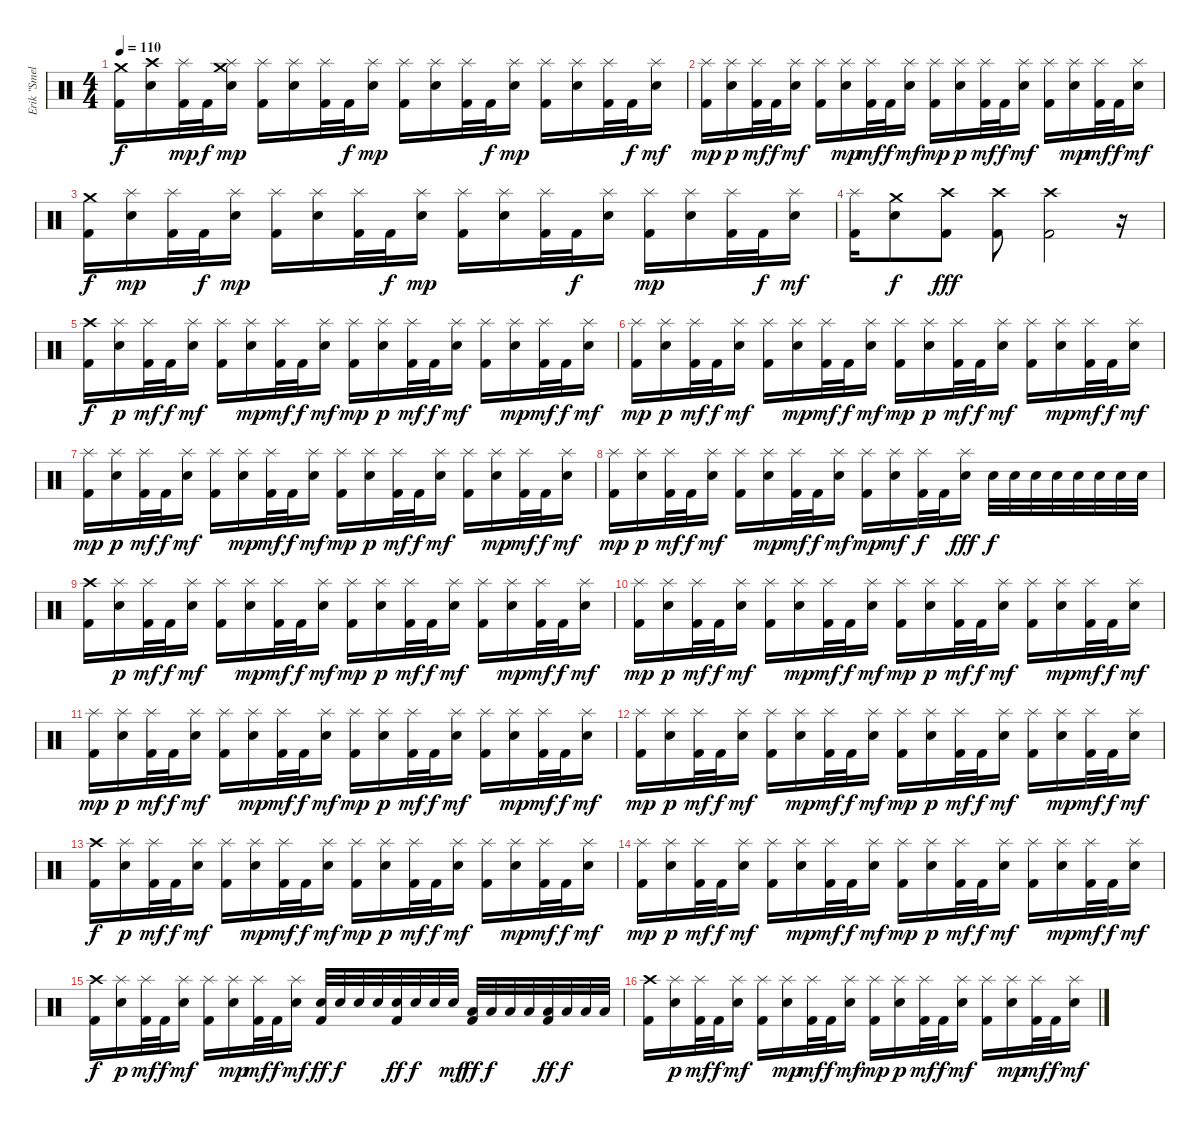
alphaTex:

\track ("Erik \"Smelly\" - Drums" "Erik \"Smel") {instrument percussion}
\staff {score}
\articulation defaults
\ts (4 4)
\tempo 110
\clef neutral
\ks c
("Crash medium (hit)" "Kick (hit) 2").16{dy f} ("Crash high (hit)" "Electric Snare (hit)").16 ("Splash (hit)" "Kick (hit) 2").32{dy mp} "Kick (hit) 2".32{dy f} ("Crash medium (hit)" "Splash (hit)" "Electric Snare (hit)").16{dy mp} ("Splash (hit)" "Kick (hit) 2").16 ("Splash (hit)" "Electric Snare (hit)").16 ("Splash (hit)" "Kick (hit) 2").32 "Kick (hit) 2".32{dy f} ("Splash (hit)" "Electric Snare (hit)").16{dy mp} ("Splash (hit)" "Kick (hit) 2").16 ("Splash (hit)" "Electric Snare (hit)").16 ("Splash (hit)" "Kick (hit) 2").32 "Kick (hit) 2".32{dy f} ("Splash (hit)" "Electric Snare (hit)").16{dy mp} ("Splash (hit)" "Kick (hit) 2").16 ("Splash (hit)" "Electric Snare (hit)").16 ("Splash (hit)" "Kick (hit) 2").32 "Kick (hit) 2".32{dy f} ("Splash (hit)" "Electric Snare (hit)").16{dy mf} |
("Splash (hit)" "Kick (hit) 2").16{dy mp} ("Splash (hit)" "Electric Snare (hit)").16{dy p} ("Splash (hit)" "Kick (hit) 2").32{dy mf} "Kick (hit) 2".32{dy f} ("Splash (hit)" "Electric Snare (hit)").16{dy mf} ("Splash (hit)" "Kick (hit) 2").16 ("Splash (hit)" "Electric Snare (hit)").16{dy mp} ("Splash (hit)" "Kick (hit) 2").32{dy mf} "Kick (hit) 2".32{dy f} ("Splash (hit)" "Electric Snare (hit)").16{dy mf} ("Splash (hit)" "Kick (hit) 2").16{dy mp} ("Splash (hit)" "Electric Snare (hit)").16{dy p} ("Splash (hit)" "Kick (hit) 2").32{dy mf} "Kick (hit) 2".32{dy f} ("Splash (hit)" "Electric Snare (hit)").16{dy mf} ("Splash (hit)" "Kick (hit) 2").16 ("Splash (hit)" "Electric Snare (hit)").16{dy mp} ("Splash (hit)" "Kick (hit) 2").32{dy mf} "Kick (hit) 2".32{dy f} ("Splash (hit)" "Electric Snare (hit)").16{dy mf} |
("Crash medium (hit)" "Kick (hit) 2").16{dy f} ("Splash (hit)" "Electric Snare (hit)").16{dy mp} ("Splash (hit)" "Kick (hit) 2").32 "Kick (hit) 2".32{dy f} ("Splash (hit)" "Electric Snare (hit)").16{dy mp} ("Splash (hit)" "Kick (hit) 2").16 ("Splash (hit)" "Electric Snare (hit)").16 ("Splash (hit)" "Kick (hit) 2").32 "Kick (hit) 2".32{dy f} ("Splash (hit)" "Electric Snare (hit)").16{dy mp} ("Splash (hit)" "Kick (hit) 2").16 ("Splash (hit)" "Electric Snare (hit)").16 ("Splash (hit)" "Kick (hit) 2").32 "Kick (hit) 2".32{dy f} ("Splash (hit)" "Electric Snare (hit)").16 ("Splash (hit)" "Kick (hit) 2").16{dy mp} ("Splash (hit)" "Electric Snare (hit)").16 ("Splash (hit)" "Kick (hit) 2").32 "Kick (hit) 2".32{dy f} ("Splash (hit)" "Electric Snare (hit)").16{dy mf} |
("Splash (hit)" "Kick (hit) 2").16 ("Crash medium (hit)" "Electric Snare (hit)").8{dy f} ("Crash high (hit)" "Kick (hit) 2").8{dy fff} ("Crash high (hit)" "Kick (hit) 2").8 ("Crash high (hit)" "Kick (hit) 2").2 r.16 |
("Crash high (hit)" "Kick (hit) 2").16{dy f} ("Splash (hit)" "Electric Snare (hit)").16{dy p} ("Splash (hit)" "Kick (hit) 2").32{dy mf} "Kick (hit) 2".32{dy f} ("Splash (hit)" "Electric Snare (hit)").16{dy mf} ("Splash (hit)" "Kick (hit) 2").16 ("Splash (hit)" "Electric Snare (hit)").16{dy mp} ("Splash (hit)" "Kick (hit) 2").32{dy mf} "Kick (hit) 2".32{dy f} ("Splash (hit)" "Electric Snare (hit)").16{dy mf} ("Splash (hit)" "Kick (hit) 2").16{dy mp} ("Splash (hit)" "Electric Snare (hit)").16{dy p} ("Splash (hit)" "Kick (hit) 2").32{dy mf} "Kick (hit) 2".32{dy f} ("Splash (hit)" "Electric Snare (hit)").16{dy mf} ("Splash (hit)" "Kick (hit) 2").16 ("Splash (hit)" "Electric Snare (hit)").16{dy mp} ("Splash (hit)" "Kick (hit) 2").32{dy mf} "Kick (hit) 2".32{dy f} ("Splash (hit)" "Electric Snare (hit)").16{dy mf} |
("Splash (hit)" "Kick (hit) 2").16{dy mp} ("Splash (hit)" "Electric Snare (hit)").16{dy p} ("Splash (hit)" "Kick (hit) 2").32{dy mf} "Kick (hit) 2".32{dy f} ("Splash (hit)" "Electric Snare (hit)").16{dy mf} ("Splash (hit)" "Kick (hit) 2").16 ("Splash (hit)" "Electric Snare (hit)").16{dy mp} ("Splash (hit)" "Kick (hit) 2").32{dy mf} "Kick (hit) 2".32{dy f} ("Splash (hit)" "Electric Snare (hit)").16{dy mf} ("Splash (hit)" "Kick (hit) 2").16{dy mp} ("Splash (hit)" "Electric Snare (hit)").16{dy p} ("Splash (hit)" "Kick (hit) 2").32{dy mf} "Kick (hit) 2".32{dy f} ("Splash (hit)" "Electric Snare (hit)").16{dy mf} ("Splash (hit)" "Kick (hit) 2").16 ("Splash (hit)" "Electric Snare (hit)").16{dy mp} ("Splash (hit)" "Kick (hit) 2").32{dy mf} "Kick (hit) 2".32{dy f} ("Splash (hit)" "Electric Snare (hit)").16{dy mf} |
("Splash (hit)" "Kick (hit) 2").16{dy mp} ("Splash (hit)" "Electric Snare (hit)").16{dy p} ("Splash (hit)" "Kick (hit) 2").32{dy mf} "Kick (hit) 2".32{dy f} ("Splash (hit)" "Electric Snare (hit)").16{dy mf} ("Splash (hit)" "Kick (hit) 2").16 ("Splash (hit)" "Electric Snare (hit)").16{dy mp} ("Splash (hit)" "Kick (hit) 2").32{dy mf} "Kick (hit) 2".32{dy f} ("Splash (hit)" "Electric Snare (hit)").16{dy mf} ("Splash (hit)" "Kick (hit) 2").16{dy mp} ("Splash (hit)" "Electric Snare (hit)").16{dy p} ("Splash (hit)" "Kick (hit) 2").32{dy mf} "Kick (hit) 2".32{dy f} ("Splash (hit)" "Electric Snare (hit)").16{dy mf} ("Splash (hit)" "Kick (hit) 2").16 ("Splash (hit)" "Electric Snare (hit)").16{dy mp} ("Splash (hit)" "Kick (hit) 2").32{dy mf} "Kick (hit) 2".32{dy f} ("Splash (hit)" "Electric Snare (hit)").16{dy mf} |
("Splash (hit)" "Kick (hit) 2").16{dy mp} ("Splash (hit)" "Electric Snare (hit)").16{dy p} ("Splash (hit)" "Kick (hit) 2").32{dy mf} "Kick (hit) 2".32{dy f} ("Splash (hit)" "Electric Snare (hit)").16{dy mf} ("Splash (hit)" "Kick (hit) 2").16 ("Splash (hit)" "Electric Snare (hit)").16{dy mp} ("Splash (hit)" "Kick (hit) 2").32{dy mf} "Kick (hit) 2".32{dy f} ("Splash (hit)" "Electric Snare (hit)").16{dy mf} ("Splash (hit)" "Kick (hit) 2").16{dy mp} ("Splash (hit)" "Electric Snare (hit)").16{dy mf} ("Splash (hit)" "Kick (hit) 2").32{dy f} "Kick (hit) 2".32 ("Splash (hit)" "Electric Snare (hit)").16{dy fff} "Electric Snare (hit)".32{dy f} "Electric Snare (hit)".32 "Electric Snare (hit)".32 "Electric Snare (hit)".32 "Electric Snare (hit)".32 "Electric Snare (hit)".32 "Electric Snare (hit)".32 "Electric Snare (hit)".32 |
("Crash high (hit)" "Kick (hit) 2").16 ("Splash (hit)" "Electric Snare (hit)").16{dy p} ("Splash (hit)" "Kick (hit) 2").32{dy mf} "Kick (hit) 2".32{dy f} ("Splash (hit)" "Electric Snare (hit)").16{dy mf} ("Splash (hit)" "Kick (hit) 2").16 ("Splash (hit)" "Electric Snare (hit)").16{dy mp} ("Splash (hit)" "Kick (hit) 2").32{dy mf} "Kick (hit) 2".32{dy f} ("Splash (hit)" "Electric Snare (hit)").16{dy mf} ("Splash (hit)" "Kick (hit) 2").16{dy mp} ("Splash (hit)" "Electric Snare (hit)").16{dy p} ("Splash (hit)" "Kick (hit) 2").32{dy mf} "Kick (hit) 2".32{dy f} ("Splash (hit)" "Electric Snare (hit)").16{dy mf} ("Splash (hit)" "Kick (hit) 2").16 ("Splash (hit)" "Electric Snare (hit)").16{dy mp} ("Splash (hit)" "Kick (hit) 2").32{dy mf} "Kick (hit) 2".32{dy f} ("Splash (hit)" "Electric Snare (hit)").16{dy mf} |
("Splash (hit)" "Kick (hit) 2").16{dy mp} ("Splash (hit)" "Electric Snare (hit)").16{dy p} ("Splash (hit)" "Kick (hit) 2").32{dy mf} "Kick (hit) 2".32{dy f} ("Splash (hit)" "Electric Snare (hit)").16{dy mf} ("Splash (hit)" "Kick (hit) 2").16 ("Splash (hit)" "Electric Snare (hit)").16{dy mp} ("Splash (hit)" "Kick (hit) 2").32{dy mf} "Kick (hit) 2".32{dy f} ("Splash (hit)" "Electric Snare (hit)").16{dy mf} ("Splash (hit)" "Kick (hit) 2").16{dy mp} ("Splash (hit)" "Electric Snare (hit)").16{dy p} ("Splash (hit)" "Kick (hit) 2").32{dy mf} "Kick (hit) 2".32{dy f} ("Splash (hit)" "Electric Snare (hit)").16{dy mf} ("Splash (hit)" "Kick (hit) 2").16 ("Splash (hit)" "Electric Snare (hit)").16{dy mp} ("Splash (hit)" "Kick (hit) 2").32{dy mf} "Kick (hit) 2".32{dy f} ("Splash (hit)" "Electric Snare (hit)").16{dy mf} |
("Splash (hit)" "Kick (hit) 2").16{dy mp} ("Splash (hit)" "Electric Snare (hit)").16{dy p} ("Splash (hit)" "Kick (hit) 2").32{dy mf} "Kick (hit) 2".32{dy f} ("Splash (hit)" "Electric Snare (hit)").16{dy mf} ("Splash (hit)" "Kick (hit) 2").16 ("Splash (hit)" "Electric Snare (hit)").16{dy mp} ("Splash (hit)" "Kick (hit) 2").32{dy mf} "Kick (hit) 2".32{dy f} ("Splash (hit)" "Electric Snare (hit)").16{dy mf} ("Splash (hit)" "Kick (hit) 2").16{dy mp} ("Splash (hit)" "Electric Snare (hit)").16{dy p} ("Splash (hit)" "Kick (hit) 2").32{dy mf} "Kick (hit) 2".32{dy f} ("Splash (hit)" "Electric Snare (hit)").16{dy mf} ("Splash (hit)" "Kick (hit) 2").16 ("Splash (hit)" "Electric Snare (hit)").16{dy mp} ("Splash (hit)" "Kick (hit) 2").32{dy mf} "Kick (hit) 2".32{dy f} ("Splash (hit)" "Electric Snare (hit)").16{dy mf} |
("Splash (hit)" "Kick (hit) 2").16{dy mp} ("Splash (hit)" "Electric Snare (hit)").16{dy p} ("Splash (hit)" "Kick (hit) 2").32{dy mf} "Kick (hit) 2".32{dy f} ("Splash (hit)" "Electric Snare (hit)").16{dy mf} ("Splash (hit)" "Kick (hit) 2").16 ("Splash (hit)" "Electric Snare (hit)").16{dy mp} ("Splash (hit)" "Kick (hit) 2").32{dy mf} "Kick (hit) 2".32{dy f} ("Splash (hit)" "Electric Snare (hit)").16{dy mf} ("Splash (hit)" "Kick (hit) 2").16{dy mp} ("Splash (hit)" "Electric Snare (hit)").16{dy p} ("Splash (hit)" "Kick (hit) 2").32{dy mf} "Kick (hit) 2".32{dy f} ("Splash (hit)" "Electric Snare (hit)").16{dy mf} ("Splash (hit)" "Kick (hit) 2").16 ("Splash (hit)" "Electric Snare (hit)").16{dy mp} ("Splash (hit)" "Kick (hit) 2").32{dy mf} "Kick (hit) 2".32{dy f} ("Splash (hit)" "Electric Snare (hit)").16{dy mf} |
("Crash high (hit)" "Kick (hit) 2").16{dy f} ("Splash (hit)" "Electric Snare (hit)").16{dy p} ("Splash (hit)" "Kick (hit) 2").32{dy mf} "Kick (hit) 2".32{dy f} ("Splash (hit)" "Electric Snare (hit)").16{dy mf} ("Splash (hit)" "Kick (hit) 2").16 ("Splash (hit)" "Electric Snare (hit)").16{dy mp} ("Splash (hit)" "Kick (hit) 2").32{dy mf} "Kick (hit) 2".32{dy f} ("Splash (hit)" "Electric Snare (hit)").16{dy mf} ("Splash (hit)" "Kick (hit) 2").16{dy mp} ("Splash (hit)" "Electric Snare (hit)").16{dy p} ("Splash (hit)" "Kick (hit) 2").32{dy mf} "Kick (hit) 2".32{dy f} ("Splash (hit)" "Electric Snare (hit)").16{dy mf} ("Splash (hit)" "Kick (hit) 2").16 ("Splash (hit)" "Electric Snare (hit)").16{dy mp} ("Splash (hit)" "Kick (hit) 2").32{dy mf} "Kick (hit) 2".32{dy f} ("Splash (hit)" "Electric Snare (hit)").16{dy mf} |
("Splash (hit)" "Kick (hit) 2").16{dy mp} ("Splash (hit)" "Electric Snare (hit)").16{dy p} ("Splash (hit)" "Kick (hit) 2").32{dy mf} "Kick (hit) 2".32{dy f} ("Splash (hit)" "Electric Snare (hit)").16{dy mf} ("Splash (hit)" "Kick (hit) 2").16 ("Splash (hit)" "Electric Snare (hit)").16{dy mp} ("Splash (hit)" "Kick (hit) 2").32{dy mf} "Kick (hit) 2".32{dy f} ("Splash (hit)" "Electric Snare (hit)").16{dy mf} ("Splash (hit)" "Kick (hit) 2").16{dy mp} ("Splash (hit)" "Electric Snare (hit)").16{dy p} ("Splash (hit)" "Kick (hit) 2").32{dy mf} "Kick (hit) 2".32{dy f} ("Splash (hit)" "Electric Snare (hit)").16{dy mf} ("Splash (hit)" "Kick (hit) 2").16 ("Splash (hit)" "Electric Snare (hit)").16{dy mp} ("Splash (hit)" "Kick (hit) 2").32{dy mf} "Kick (hit) 2".32{dy f} ("Splash (hit)" "Electric Snare (hit)").16{dy mf} |
("Crash high (hit)" "Kick (hit) 2").16{dy f} ("Splash (hit)" "Electric Snare (hit)").16{dy p} ("Splash (hit)" "Kick (hit) 2").32{dy mf} "Kick (hit) 2".32{dy f} ("Splash (hit)" "Electric Snare (hit)").16{dy mf} ("Splash (hit)" "Kick (hit) 2").16 ("Splash (hit)" "Electric Snare (hit)").16{dy mp} ("Splash (hit)" "Kick (hit) 2").32{dy mf} "Kick (hit) 2".32{dy f} ("Splash (hit)" "Electric Snare (hit)").16{dy mf} ("Electric Snare (hit)" "Kick (hit) 2").32{dy ff} "Electric Snare (hit)".32{dy f} "Electric Snare (hit)".32 "Electric Snare (hit)".32 ("Electric Snare (hit)" "Kick (hit) 2").32{dy ff} "Electric Snare (hit)".32{dy f} "Electric Snare (hit)".32 "Electric Snare (hit)".32{dy mf} ("Low Tom (hit)" "Kick (hit) 2").32{dy ff} "Low Tom (hit)".32{dy f} "Low Tom (hit)".32 "Low Tom (hit)".32 ("Low Tom (hit)" "Kick (hit) 2").32{dy ff} "Low Tom (hit)".32{dy f} "Low Tom (hit)".32 "Low Tom (hit)".32 |
("Crash high (hit)" "Kick (hit) 2").16 ("Splash (hit)" "Electric Snare (hit)").16{dy p} ("Splash (hit)" "Kick (hit) 2").32{dy mf} "Kick (hit) 2".32{dy f} ("Splash (hit)" "Electric Snare (hit)").16{dy mf} ("Splash (hit)" "Kick (hit) 2").16 ("Splash (hit)" "Electric Snare (hit)").16{dy mp} ("Splash (hit)" "Kick (hit) 2").32{dy mf} "Kick (hit) 2".32{dy f} ("Splash (hit)" "Electric Snare (hit)").16{dy mf} ("Splash (hit)" "Kick (hit) 2").16{dy mp} ("Splash (hit)" "Electric Snare (hit)").16{dy p} ("Splash (hit)" "Kick (hit) 2").32{dy mf} "Kick (hit) 2".32{dy f} ("Splash (hit)" "Electric Snare (hit)").16{dy mf} ("Splash (hit)" "Kick (hit) 2").16 ("Splash (hit)" "Electric Snare (hit)").16{dy mp} ("Splash (hit)" "Kick (hit) 2").32{dy mf} "Kick (hit) 2".32{dy f} ("Splash (hit)" "Electric Snare (hit)").16{dy mf}
